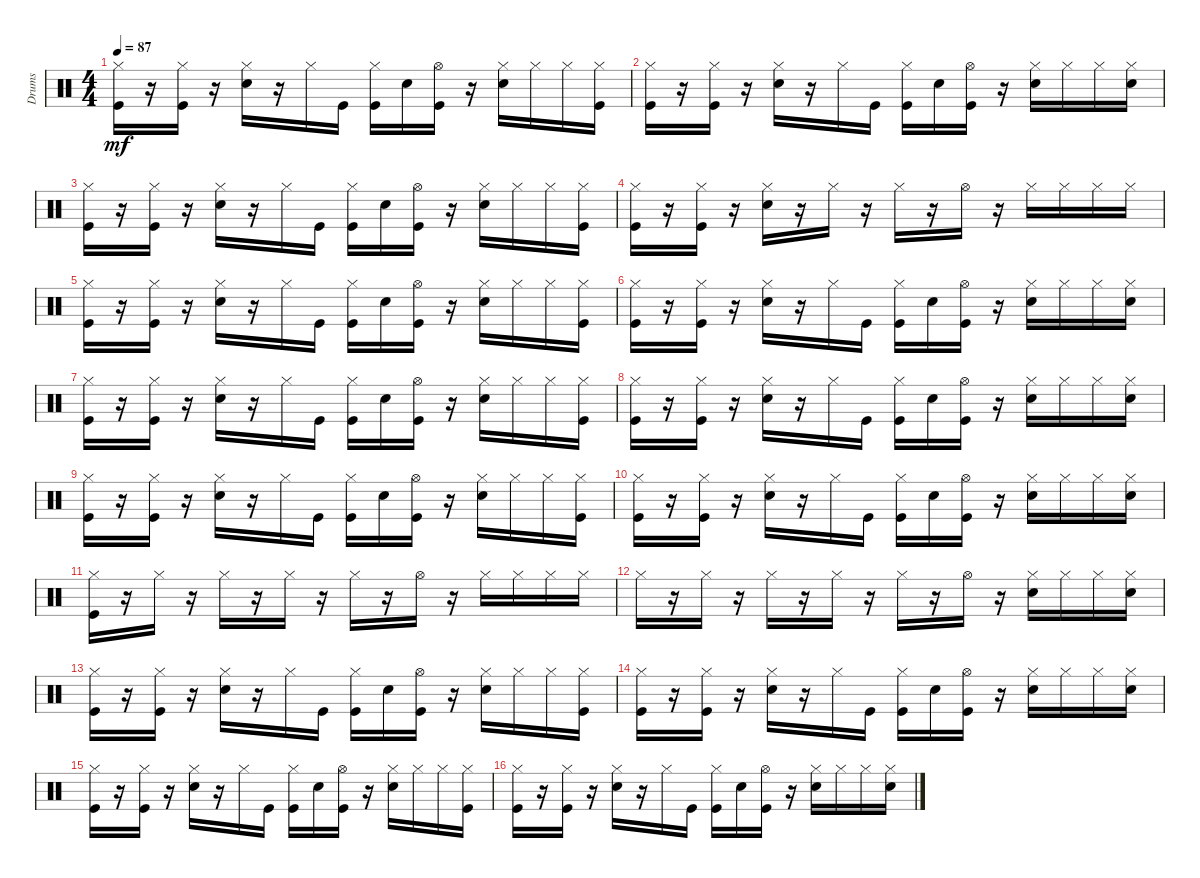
\track ("Drums" "Drums") {instrument percussion}
\staff {score}
\articulation defaults
\ts (4 4)
\tempo 87
\clef neutral
\ks aminor
("Kick (hit)" "Hi-Hat (closed)").16{dy mf} r.16 ("Kick (hit)" "Hi-Hat (closed)").16 r.16 ("Electric Snare (hit)" "Hi-Hat (closed)").16 r.16 "Hi-Hat (closed)".16 "Kick (hit)".16 ("Kick (hit)" "Hi-Hat (closed)").16 "Electric Snare (hit)".16 ("Kick (hit)" "Hi-Hat (open)").16 r.16 ("Electric Snare (hit)" "Hi-Hat (closed)").16 "Hi-Hat (closed)".16 "Hi-Hat (closed)".16 ("Kick (hit)" "Hi-Hat (closed)").16 |
("Kick (hit)" "Hi-Hat (closed)").16 r.16 ("Kick (hit)" "Hi-Hat (closed)").16 r.16 ("Electric Snare (hit)" "Hi-Hat (closed)").16 r.16 "Hi-Hat (closed)".16 "Kick (hit)".16 ("Kick (hit)" "Hi-Hat (closed)").16 "Electric Snare (hit)".16 ("Kick (hit)" "Hi-Hat (open)").16 r.16 ("Electric Snare (hit)" "Hi-Hat (closed)").16 "Hi-Hat (closed)".16 "Hi-Hat (closed)".16 ("Electric Snare (hit)" "Hi-Hat (closed)").16 |
("Kick (hit)" "Hi-Hat (closed)").16 r.16 ("Kick (hit)" "Hi-Hat (closed)").16 r.16 ("Electric Snare (hit)" "Hi-Hat (closed)").16 r.16 "Hi-Hat (closed)".16 "Kick (hit)".16 ("Kick (hit)" "Hi-Hat (closed)").16 "Electric Snare (hit)".16 ("Kick (hit)" "Hi-Hat (open)").16 r.16 ("Electric Snare (hit)" "Hi-Hat (closed)").16 "Hi-Hat (closed)".16 "Hi-Hat (closed)".16 ("Kick (hit)" "Hi-Hat (closed)").16 |
("Kick (hit)" "Hi-Hat (closed)").16 r.16 ("Kick (hit)" "Hi-Hat (closed)").16 r.16 ("Electric Snare (hit)" "Hi-Hat (closed)").16 r.16 "Hi-Hat (closed)".16 r.16 "Hi-Hat (closed)".16 r.16 "Hi-Hat (open)".16 r.16 "Hi-Hat (closed)".16 "Hi-Hat (closed)".16 "Hi-Hat (closed)".16 "Hi-Hat (closed)".16 |
("Kick (hit)" "Hi-Hat (closed)").16 r.16 ("Kick (hit)" "Hi-Hat (closed)").16 r.16 ("Electric Snare (hit)" "Hi-Hat (closed)").16 r.16 "Hi-Hat (closed)".16 "Kick (hit)".16 ("Kick (hit)" "Hi-Hat (closed)").16 "Electric Snare (hit)".16 ("Kick (hit)" "Hi-Hat (open)").16 r.16 ("Electric Snare (hit)" "Hi-Hat (closed)").16 "Hi-Hat (closed)".16 "Hi-Hat (closed)".16 ("Kick (hit)" "Hi-Hat (closed)").16 |
("Kick (hit)" "Hi-Hat (closed)").16 r.16 ("Kick (hit)" "Hi-Hat (closed)").16 r.16 ("Electric Snare (hit)" "Hi-Hat (closed)").16 r.16 "Hi-Hat (closed)".16 "Kick (hit)".16 ("Kick (hit)" "Hi-Hat (closed)").16 "Electric Snare (hit)".16 ("Kick (hit)" "Hi-Hat (open)").16 r.16 ("Electric Snare (hit)" "Hi-Hat (closed)").16 "Hi-Hat (closed)".16 "Hi-Hat (closed)".16 ("Electric Snare (hit)" "Hi-Hat (closed)").16 |
("Kick (hit)" "Hi-Hat (closed)").16 r.16 ("Kick (hit)" "Hi-Hat (closed)").16 r.16 ("Electric Snare (hit)" "Hi-Hat (closed)").16 r.16 "Hi-Hat (closed)".16 "Kick (hit)".16 ("Kick (hit)" "Hi-Hat (closed)").16 "Electric Snare (hit)".16 ("Kick (hit)" "Hi-Hat (open)").16 r.16 ("Electric Snare (hit)" "Hi-Hat (closed)").16 "Hi-Hat (closed)".16 "Hi-Hat (closed)".16 ("Kick (hit)" "Hi-Hat (closed)").16 |
("Kick (hit)" "Hi-Hat (closed)").16 r.16 ("Kick (hit)" "Hi-Hat (closed)").16 r.16 ("Electric Snare (hit)" "Hi-Hat (closed)").16 r.16 "Hi-Hat (closed)".16 "Kick (hit)".16 ("Kick (hit)" "Hi-Hat (closed)").16 "Electric Snare (hit)".16 ("Kick (hit)" "Hi-Hat (open)").16 r.16 ("Electric Snare (hit)" "Hi-Hat (closed)").16 "Hi-Hat (closed)".16 "Hi-Hat (closed)".16 ("Electric Snare (hit)" "Hi-Hat (closed)").16 |
("Kick (hit)" "Hi-Hat (closed)").16 r.16 ("Kick (hit)" "Hi-Hat (closed)").16 r.16 ("Electric Snare (hit)" "Hi-Hat (closed)").16 r.16 "Hi-Hat (closed)".16 "Kick (hit)".16 ("Kick (hit)" "Hi-Hat (closed)").16 "Electric Snare (hit)".16 ("Kick (hit)" "Hi-Hat (open)").16 r.16 ("Electric Snare (hit)" "Hi-Hat (closed)").16 "Hi-Hat (closed)".16 "Hi-Hat (closed)".16 ("Kick (hit)" "Hi-Hat (closed)").16 |
("Kick (hit)" "Hi-Hat (closed)").16 r.16 ("Kick (hit)" "Hi-Hat (closed)").16 r.16 ("Electric Snare (hit)" "Hi-Hat (closed)").16 r.16 "Hi-Hat (closed)".16 "Kick (hit)".16 ("Kick (hit)" "Hi-Hat (closed)").16 "Electric Snare (hit)".16 ("Kick (hit)" "Hi-Hat (open)").16 r.16 ("Electric Snare (hit)" "Hi-Hat (closed)").16 "Hi-Hat (closed)".16 "Hi-Hat (closed)".16 ("Electric Snare (hit)" "Hi-Hat (closed)").16 |
("Kick (hit)" "Hi-Hat (closed)").16 r.16 "Hi-Hat (closed)".16 r.16 "Hi-Hat (closed)".16 r.16 "Hi-Hat (closed)".16 r.16 "Hi-Hat (closed)".16 r.16 "Hi-Hat (open)".16 r.16 "Hi-Hat (closed)".16 "Hi-Hat (closed)".16 "Hi-Hat (closed)".16 "Hi-Hat (closed)".16 |
"Hi-Hat (closed)".16 r.16 "Hi-Hat (closed)".16 r.16 "Hi-Hat (closed)".16 r.16 "Hi-Hat (closed)".16 r.16 "Hi-Hat (closed)".16 r.16 "Hi-Hat (open)".16 r.16 ("Electric Snare (hit)" "Hi-Hat (closed)").16 "Hi-Hat (closed)".16 "Hi-Hat (closed)".16 ("Electric Snare (hit)" "Hi-Hat (closed)").16 |
("Kick (hit)" "Hi-Hat (closed)").16 r.16 ("Kick (hit)" "Hi-Hat (closed)").16 r.16 ("Electric Snare (hit)" "Hi-Hat (closed)").16 r.16 "Hi-Hat (closed)".16 "Kick (hit)".16 ("Kick (hit)" "Hi-Hat (closed)").16 "Electric Snare (hit)".16 ("Kick (hit)" "Hi-Hat (open)").16 r.16 ("Electric Snare (hit)" "Hi-Hat (closed)").16 "Hi-Hat (closed)".16 "Hi-Hat (closed)".16 ("Kick (hit)" "Hi-Hat (closed)").16 |
("Kick (hit)" "Hi-Hat (closed)").16 r.16 ("Kick (hit)" "Hi-Hat (closed)").16 r.16 ("Electric Snare (hit)" "Hi-Hat (closed)").16 r.16 "Hi-Hat (closed)".16 "Kick (hit)".16 ("Kick (hit)" "Hi-Hat (closed)").16 "Electric Snare (hit)".16 ("Kick (hit)" "Hi-Hat (open)").16 r.16 ("Electric Snare (hit)" "Hi-Hat (closed)").16 "Hi-Hat (closed)".16 "Hi-Hat (closed)".16 ("Electric Snare (hit)" "Hi-Hat (closed)").16 |
("Kick (hit)" "Hi-Hat (closed)").16 r.16 ("Kick (hit)" "Hi-Hat (closed)").16 r.16 ("Electric Snare (hit)" "Hi-Hat (closed)").16 r.16 "Hi-Hat (closed)".16 "Kick (hit)".16 ("Kick (hit)" "Hi-Hat (closed)").16 "Electric Snare (hit)".16 ("Kick (hit)" "Hi-Hat (open)").16 r.16 ("Electric Snare (hit)" "Hi-Hat (closed)").16 "Hi-Hat (closed)".16 "Hi-Hat (closed)".16 ("Kick (hit)" "Hi-Hat (closed)").16 |
("Kick (hit)" "Hi-Hat (closed)").16 r.16 ("Kick (hit)" "Hi-Hat (closed)").16 r.16 ("Electric Snare (hit)" "Hi-Hat (closed)").16 r.16 "Hi-Hat (closed)".16 "Kick (hit)".16 ("Kick (hit)" "Hi-Hat (closed)").16 "Electric Snare (hit)".16 ("Kick (hit)" "Hi-Hat (open)").16 r.16 ("Electric Snare (hit)" "Hi-Hat (closed)").16 "Hi-Hat (closed)".16 "Hi-Hat (closed)".16 ("Electric Snare (hit)" "Hi-Hat (closed)").16
